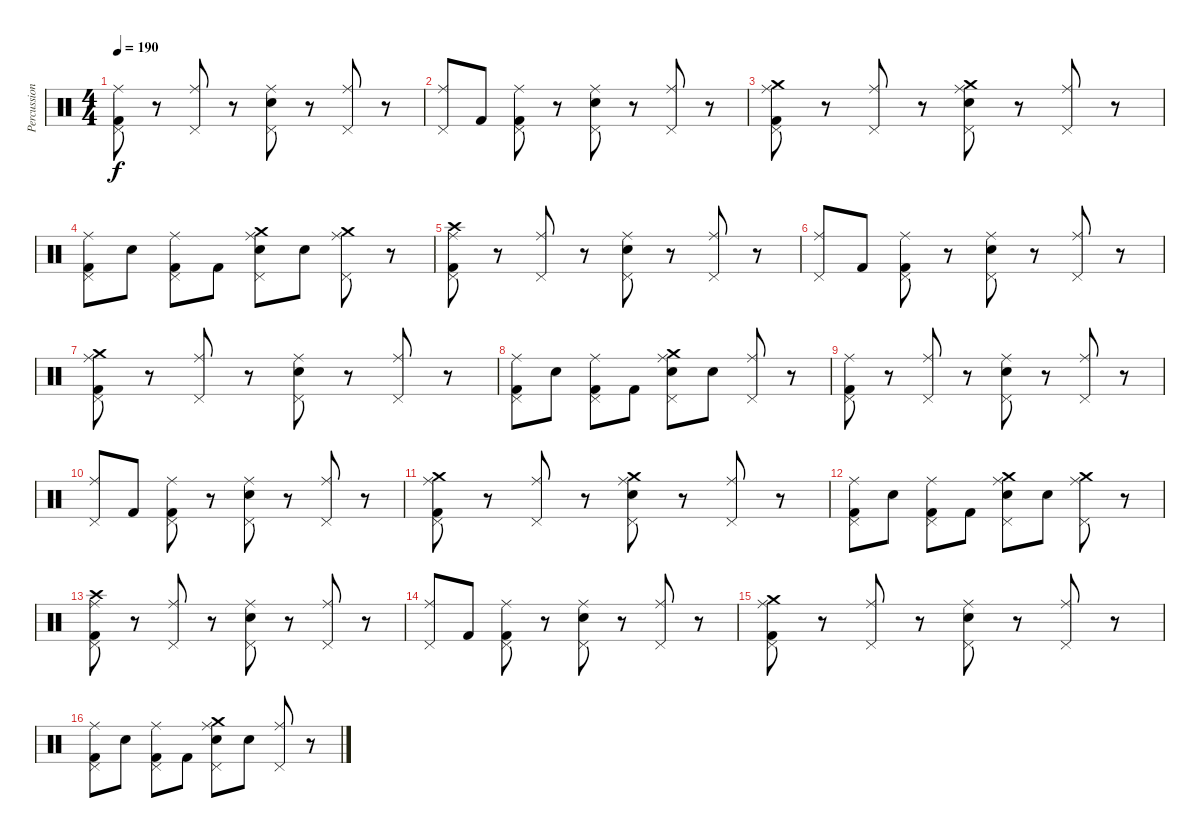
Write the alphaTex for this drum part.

\track ("Percussion" "Percussion") {instrument percussion}
\staff {score}
\articulation defaults
\ts (4 4)
\tempo 190
\clef neutral
\ks c
("Ride (middle)" "Pedal Hi-Hat (hit)" "Kick (hit) 2").8{dy f} r.8 ("Ride (middle)" "Pedal Hi-Hat (hit)").8 r.8 ("Ride (middle)" "Pedal Hi-Hat (hit)" "Snare (hit) 2").8 r.8 ("Ride (middle)" "Pedal Hi-Hat (hit)").8 r.8 |
("Ride (middle)" "Pedal Hi-Hat (hit)").8 "Kick (hit) 2".8 ("Ride (middle)" "Pedal Hi-Hat (hit)" "Kick (hit) 2").8 r.8 ("Ride (middle)" "Pedal Hi-Hat (hit)" "Snare (hit) 2").8 r.8 ("Ride (middle)" "Pedal Hi-Hat (hit)").8 r.8 |
("Crash medium (hit)" "Ride (middle)" "Pedal Hi-Hat (hit)" "Kick (hit) 2").8 r.8 ("Ride (middle)" "Pedal Hi-Hat (hit)").8 r.8 ("Crash medium (hit)" "Ride (middle)" "Pedal Hi-Hat (hit)" "Snare (hit) 2").8 r.8 ("Ride (middle)" "Pedal Hi-Hat (hit)").8 r.8 |
("Ride (middle)" "Pedal Hi-Hat (hit)" "Kick (hit) 2").8 "Snare (hit) 2".8 ("Ride (middle)" "Pedal Hi-Hat (hit)" "Kick (hit) 2").8 "Kick (hit) 2".8 ("Crash medium (hit)" "Ride (middle)" "Pedal Hi-Hat (hit)" "Snare (hit) 2").8 "Snare (hit) 2".8 ("Crash medium (hit)" "Ride (middle)" "Pedal Hi-Hat (hit)").8 r.8 |
("Crash high (hit)" "Ride (middle)" "Pedal Hi-Hat (hit)" "Kick (hit) 2").8 r.8 ("Ride (middle)" "Pedal Hi-Hat (hit)").8 r.8 ("Ride (middle)" "Pedal Hi-Hat (hit)" "Snare (hit) 2").8 r.8 ("Ride (middle)" "Pedal Hi-Hat (hit)").8 r.8 |
("Ride (middle)" "Pedal Hi-Hat (hit)").8 "Kick (hit) 2".8 ("Ride (middle)" "Pedal Hi-Hat (hit)" "Kick (hit) 2").8 r.8 ("Ride (middle)" "Pedal Hi-Hat (hit)" "Snare (hit) 2").8 r.8 ("Ride (middle)" "Pedal Hi-Hat (hit)").8 r.8 |
("Crash medium (hit)" "Ride (middle)" "Pedal Hi-Hat (hit)" "Kick (hit) 2").8 r.8 ("Ride (middle)" "Pedal Hi-Hat (hit)").8 r.8 ("Ride (middle)" "Pedal Hi-Hat (hit)" "Snare (hit) 2").8 r.8 ("Ride (middle)" "Pedal Hi-Hat (hit)").8 r.8 |
("Ride (middle)" "Pedal Hi-Hat (hit)" "Kick (hit) 2").8 "Snare (hit) 2".8 ("Ride (middle)" "Pedal Hi-Hat (hit)" "Kick (hit) 2").8 "Kick (hit) 2".8 ("Crash medium (hit)" "Ride (middle)" "Pedal Hi-Hat (hit)" "Snare (hit) 2").8 "Snare (hit) 2".8 ("Ride (middle)" "Pedal Hi-Hat (hit)").8 r.8 |
("Ride (middle)" "Pedal Hi-Hat (hit)" "Kick (hit) 2").8 r.8 ("Ride (middle)" "Pedal Hi-Hat (hit)").8 r.8 ("Ride (middle)" "Pedal Hi-Hat (hit)" "Snare (hit) 2").8 r.8 ("Ride (middle)" "Pedal Hi-Hat (hit)").8 r.8 |
("Ride (middle)" "Pedal Hi-Hat (hit)").8 "Kick (hit) 2".8 ("Ride (middle)" "Pedal Hi-Hat (hit)" "Kick (hit) 2").8 r.8 ("Ride (middle)" "Pedal Hi-Hat (hit)" "Snare (hit) 2").8 r.8 ("Ride (middle)" "Pedal Hi-Hat (hit)").8 r.8 |
("Crash medium (hit)" "Ride (middle)" "Pedal Hi-Hat (hit)" "Kick (hit) 2").8 r.8 ("Ride (middle)" "Pedal Hi-Hat (hit)").8 r.8 ("Crash medium (hit)" "Ride (middle)" "Pedal Hi-Hat (hit)" "Snare (hit) 2").8 r.8 ("Ride (middle)" "Pedal Hi-Hat (hit)").8 r.8 |
("Ride (middle)" "Pedal Hi-Hat (hit)" "Kick (hit) 2").8 "Snare (hit) 2".8 ("Ride (middle)" "Pedal Hi-Hat (hit)" "Kick (hit) 2").8 "Kick (hit) 2".8 ("Crash medium (hit)" "Ride (middle)" "Pedal Hi-Hat (hit)" "Snare (hit) 2").8 "Snare (hit) 2".8 ("Crash medium (hit)" "Ride (middle)" "Pedal Hi-Hat (hit)").8 r.8 |
("Crash high (hit)" "Ride (middle)" "Pedal Hi-Hat (hit)" "Kick (hit) 2").8 r.8 ("Ride (middle)" "Pedal Hi-Hat (hit)").8 r.8 ("Ride (middle)" "Pedal Hi-Hat (hit)" "Snare (hit) 2").8 r.8 ("Ride (middle)" "Pedal Hi-Hat (hit)").8 r.8 |
("Ride (middle)" "Pedal Hi-Hat (hit)").8 "Kick (hit) 2".8 ("Ride (middle)" "Pedal Hi-Hat (hit)" "Kick (hit) 2").8 r.8 ("Ride (middle)" "Pedal Hi-Hat (hit)" "Snare (hit) 2").8 r.8 ("Ride (middle)" "Pedal Hi-Hat (hit)").8 r.8 |
("Crash medium (hit)" "Ride (middle)" "Pedal Hi-Hat (hit)" "Kick (hit) 2").8 r.8 ("Ride (middle)" "Pedal Hi-Hat (hit)").8 r.8 ("Ride (middle)" "Pedal Hi-Hat (hit)" "Snare (hit) 2").8 r.8 ("Ride (middle)" "Pedal Hi-Hat (hit)").8 r.8 |
("Ride (middle)" "Pedal Hi-Hat (hit)" "Kick (hit) 2").8 "Snare (hit) 2".8 ("Ride (middle)" "Pedal Hi-Hat (hit)" "Kick (hit) 2").8 "Kick (hit) 2".8 ("Crash medium (hit)" "Ride (middle)" "Pedal Hi-Hat (hit)" "Snare (hit) 2").8 "Snare (hit) 2".8 ("Ride (middle)" "Pedal Hi-Hat (hit)").8 r.8
